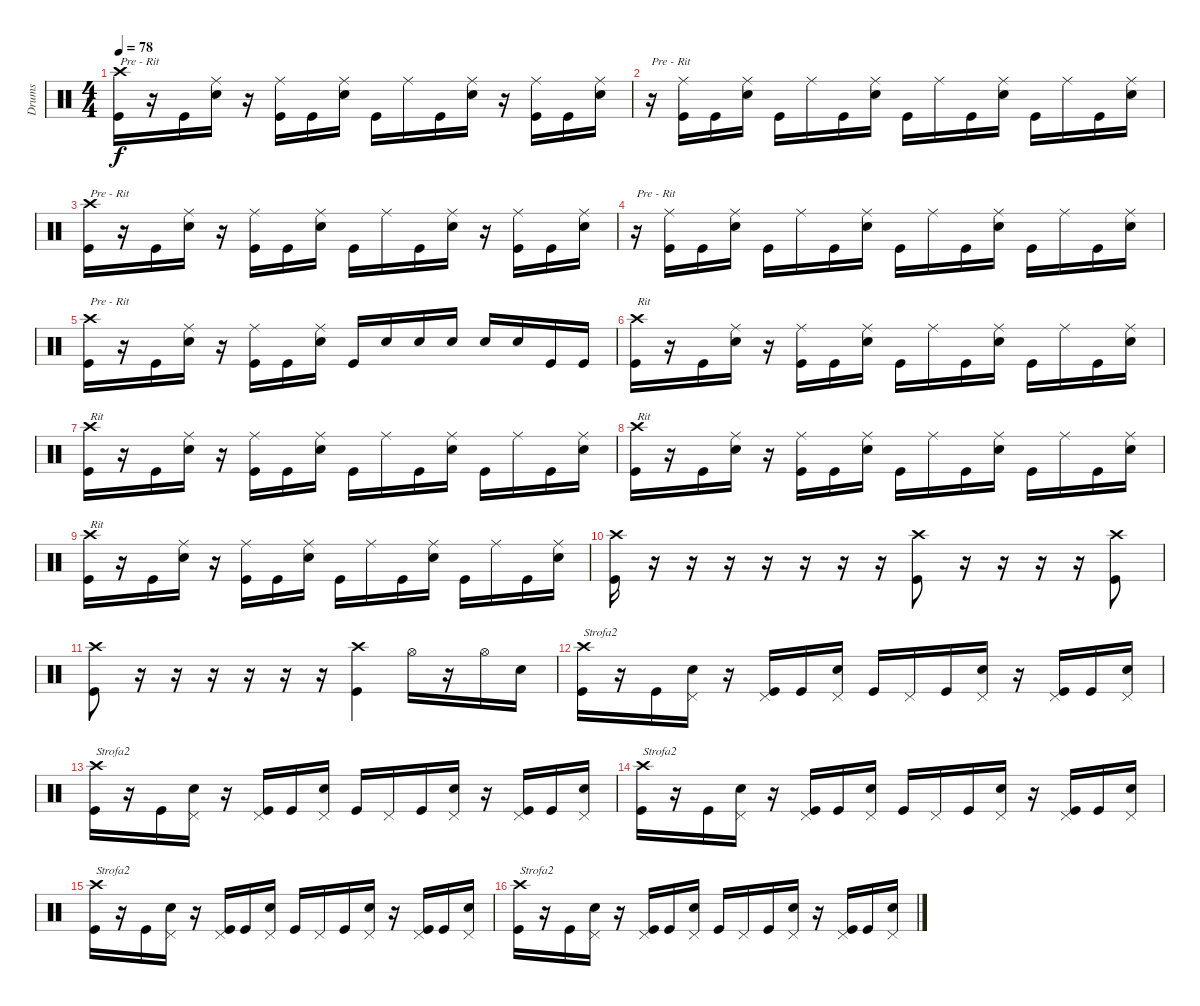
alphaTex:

\track ("Drums" "Drums") {instrument percussion}
\staff {score}
\articulation defaults
\ts (4 4)
\tempo 78
\clef neutral
\ks c
("Crash high (hit)" "Kick (hit)").16{txt "Pre - Rit" dy f} r.16 "Kick (hit)".16 ("Ride (middle)" "Snare (hit) 2").16 r.16 ("Ride (middle)" "Kick (hit)").16 "Kick (hit)".16 ("Ride (middle)" "Snare (hit) 2").16 "Kick (hit)".16 "Ride (middle)".16 "Kick (hit)".16 ("Ride (middle)" "Snare (hit) 2").16 r.16 ("Ride (middle)" "Kick (hit)").16 "Kick (hit)".16 ("Ride (middle)" "Snare (hit) 2").16 |
r.16{txt "Pre - Rit"} ("Ride (middle)" "Kick (hit)").16 "Kick (hit)".16 ("Ride (middle)" "Snare (hit) 2").16 "Kick (hit)".16 "Ride (middle)".16 "Kick (hit)".16 ("Ride (middle)" "Snare (hit) 2").16 "Kick (hit)".16 "Ride (middle)".16 "Kick (hit)".16 ("Ride (middle)" "Snare (hit) 2").16 "Kick (hit)".16 "Ride (middle)".16 "Kick (hit)".16 ("Ride (middle)" "Snare (hit) 2").16 |
("Crash high (hit)" "Kick (hit)").16{txt "Pre - Rit"} r.16 "Kick (hit)".16 ("Ride (middle)" "Snare (hit) 2").16 r.16 ("Ride (middle)" "Kick (hit)").16 "Kick (hit)".16 ("Ride (middle)" "Snare (hit) 2").16 "Kick (hit)".16 "Ride (middle)".16 "Kick (hit)".16 ("Ride (middle)" "Snare (hit) 2").16 r.16 ("Ride (middle)" "Kick (hit)").16 "Kick (hit)".16 ("Ride (middle)" "Snare (hit) 2").16 |
r.16{txt "Pre - Rit"} ("Ride (middle)" "Kick (hit)").16 "Kick (hit)".16 ("Ride (middle)" "Snare (hit) 2").16 "Kick (hit)".16 "Ride (middle)".16 "Kick (hit)".16 ("Ride (middle)" "Snare (hit) 2").16 "Kick (hit)".16 "Ride (middle)".16 "Kick (hit)".16 ("Ride (middle)" "Snare (hit) 2").16 "Kick (hit)".16 "Ride (middle)".16 "Kick (hit)".16 ("Ride (middle)" "Snare (hit) 2").16 |
("Crash high (hit)" "Kick (hit)").16{txt "Pre - Rit"} r.16 "Kick (hit)".16 ("Ride (middle)" "Snare (hit) 2").16 r.16 ("Ride (middle)" "Kick (hit)").16 "Kick (hit)".16 ("Ride (middle)" "Snare (hit) 2").16 "Kick (hit)".16 "Snare (hit) 2".16 "Snare (hit) 2".16 "Snare (hit) 2".16 "Snare (hit) 2".16 "Snare (hit) 2".16 "Kick (hit)".16 "Kick (hit)".16 |
("Crash high (hit)" "Kick (hit)").16{txt "Rit"} r.16 "Kick (hit)".16 ("Ride (middle)" "Snare (hit) 2").16 r.16 ("Ride (middle)" "Kick (hit)").16 "Kick (hit)".16 ("Ride (middle)" "Snare (hit) 2").16 "Kick (hit)".16 "Ride (middle)".16 "Kick (hit)".16 ("Ride (middle)" "Snare (hit) 2").16 "Kick (hit)".16 "Ride (middle)".16 "Kick (hit)".16 ("Ride (middle)" "Snare (hit) 2").16 |
("Crash high (hit)" "Kick (hit)").16{txt "Rit"} r.16 "Kick (hit)".16 ("Ride (middle)" "Snare (hit) 2").16 r.16 ("Ride (middle)" "Kick (hit)").16 "Kick (hit)".16 ("Ride (middle)" "Snare (hit) 2").16 "Kick (hit)".16 "Ride (middle)".16 "Kick (hit)".16 ("Ride (middle)" "Snare (hit) 2").16 "Kick (hit)".16 "Ride (middle)".16 "Kick (hit)".16 ("Ride (middle)" "Snare (hit) 2").16 |
("Crash high (hit)" "Kick (hit)").16{txt "Rit"} r.16 "Kick (hit)".16 ("Ride (middle)" "Snare (hit) 2").16 r.16 ("Ride (middle)" "Kick (hit)").16 "Kick (hit)".16 ("Ride (middle)" "Snare (hit) 2").16 "Kick (hit)".16 "Ride (middle)".16 "Kick (hit)".16 ("Ride (middle)" "Snare (hit) 2").16 "Kick (hit)".16 "Ride (middle)".16 "Kick (hit)".16 ("Ride (middle)" "Snare (hit) 2").16 |
("Crash high (hit)" "Kick (hit)").16{txt "Rit"} r.16 "Kick (hit)".16 ("Ride (middle)" "Snare (hit) 2").16 r.16 ("Ride (middle)" "Kick (hit)").16 "Kick (hit)".16 ("Ride (middle)" "Snare (hit) 2").16 "Kick (hit)".16 "Ride (middle)".16 "Kick (hit)".16 ("Ride (middle)" "Snare (hit) 2").16 "Kick (hit)".16 "Ride (middle)".16 "Kick (hit)".16 ("Ride (middle)" "Snare (hit) 2").16 |
("Crash high (hit)" "Kick (hit)").16 r.16 r.16 r.16 r.16 r.16 r.16 r.16 ("Crash high (hit)" "Kick (hit)").8 r.16 r.16 r.16 r.16 ("Crash high (hit)" "Kick (hit)").8 |
("Crash high (hit)" "Kick (hit)").8 r.16 r.16 r.16 r.16 r.16 r.16 ("Crash high (hit)" "Kick (hit)").4 "Hi-Hat (open)".16 r.16 "Hi-Hat (open)".16 "Snare (hit) 2".16 |
("Crash high (hit)" "Kick (hit)").16{txt "Strofa2"} r.16 "Kick (hit)".16 ("Pedal Hi-Hat (hit)" "Snare (hit) 2").16 r.16 ("Pedal Hi-Hat (hit)" "Kick (hit)").16 "Kick (hit)".16 ("Pedal Hi-Hat (hit)" "Snare (hit) 2").16 "Kick (hit)".16 "Pedal Hi-Hat (hit)".16 "Kick (hit)".16 ("Pedal Hi-Hat (hit)" "Snare (hit) 2").16 r.16 ("Pedal Hi-Hat (hit)" "Kick (hit)").16 "Kick (hit)".16 ("Pedal Hi-Hat (hit)" "Snare (hit) 2").16 |
("Crash high (hit)" "Kick (hit)").16{txt "Strofa2"} r.16 "Kick (hit)".16 ("Pedal Hi-Hat (hit)" "Snare (hit) 2").16 r.16 ("Pedal Hi-Hat (hit)" "Kick (hit)").16 "Kick (hit)".16 ("Pedal Hi-Hat (hit)" "Snare (hit) 2").16 "Kick (hit)".16 "Pedal Hi-Hat (hit)".16 "Kick (hit)".16 ("Pedal Hi-Hat (hit)" "Snare (hit) 2").16 r.16 ("Pedal Hi-Hat (hit)" "Kick (hit)").16 "Kick (hit)".16 ("Pedal Hi-Hat (hit)" "Snare (hit) 2").16 |
("Crash high (hit)" "Kick (hit)").16{txt "Strofa2"} r.16 "Kick (hit)".16 ("Pedal Hi-Hat (hit)" "Snare (hit) 2").16 r.16 ("Pedal Hi-Hat (hit)" "Kick (hit)").16 "Kick (hit)".16 ("Pedal Hi-Hat (hit)" "Snare (hit) 2").16 "Kick (hit)".16 "Pedal Hi-Hat (hit)".16 "Kick (hit)".16 ("Pedal Hi-Hat (hit)" "Snare (hit) 2").16 r.16 ("Pedal Hi-Hat (hit)" "Kick (hit)").16 "Kick (hit)".16 ("Pedal Hi-Hat (hit)" "Snare (hit) 2").16 |
("Crash high (hit)" "Kick (hit)").16{txt "Strofa2"} r.16 "Kick (hit)".16 ("Pedal Hi-Hat (hit)" "Snare (hit) 2").16 r.16 ("Pedal Hi-Hat (hit)" "Kick (hit)").16 "Kick (hit)".16 ("Pedal Hi-Hat (hit)" "Snare (hit) 2").16 "Kick (hit)".16 "Pedal Hi-Hat (hit)".16 "Kick (hit)".16 ("Pedal Hi-Hat (hit)" "Snare (hit) 2").16 r.16 ("Pedal Hi-Hat (hit)" "Kick (hit)").16 "Kick (hit)".16 ("Pedal Hi-Hat (hit)" "Snare (hit) 2").16 |
("Crash high (hit)" "Kick (hit)").16{txt "Strofa2"} r.16 "Kick (hit)".16 ("Pedal Hi-Hat (hit)" "Snare (hit) 2").16 r.16 ("Pedal Hi-Hat (hit)" "Kick (hit)").16 "Kick (hit)".16 ("Pedal Hi-Hat (hit)" "Snare (hit) 2").16 "Kick (hit)".16 "Pedal Hi-Hat (hit)".16 "Kick (hit)".16 ("Pedal Hi-Hat (hit)" "Snare (hit) 2").16 r.16 ("Pedal Hi-Hat (hit)" "Kick (hit)").16 "Kick (hit)".16 ("Pedal Hi-Hat (hit)" "Snare (hit) 2").16
